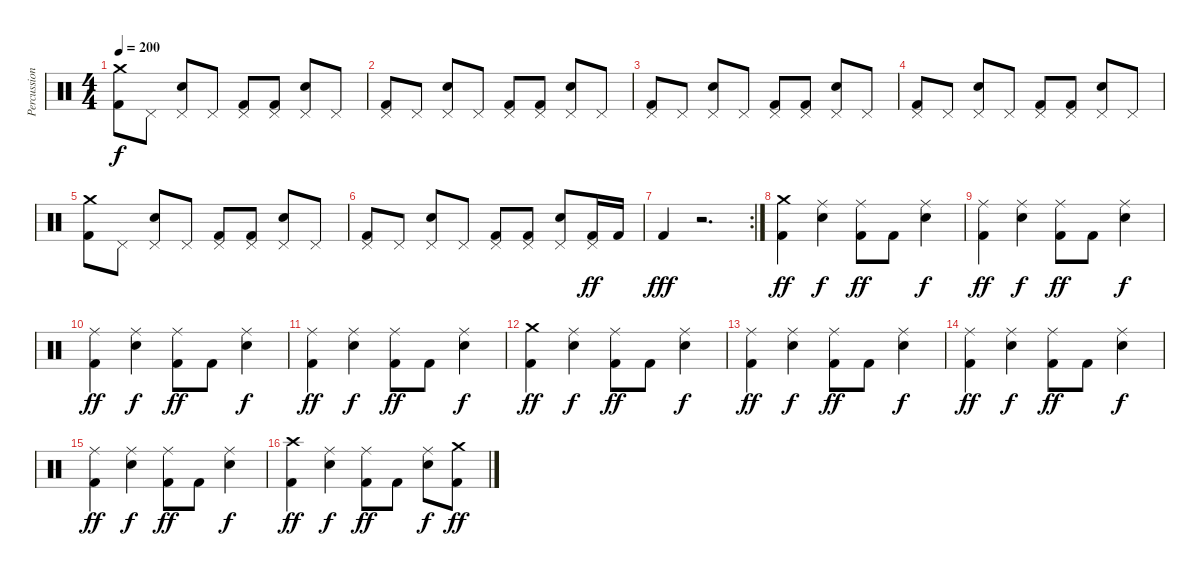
\track ("Percussion" "Percussion") {instrument percussion}
\staff {score}
\articulation defaults
\ts (4 4)
\tempo 200
\clef neutral
\ks c
("Crash medium (hit)" "Kick (hit) 2").8{dy f} "Pedal Hi-Hat (hit)".8 ("Pedal Hi-Hat (hit)" "Snare (hit) 2").8 "Pedal Hi-Hat (hit)".8 ("Pedal Hi-Hat (hit)" "Kick (hit) 2").8 ("Pedal Hi-Hat (hit)" "Kick (hit) 2").8 ("Pedal Hi-Hat (hit)" "Snare (hit) 2").8 "Pedal Hi-Hat (hit)".8 |
("Pedal Hi-Hat (hit)" "Kick (hit) 2").8 "Pedal Hi-Hat (hit)".8 ("Pedal Hi-Hat (hit)" "Snare (hit) 2").8 "Pedal Hi-Hat (hit)".8 ("Pedal Hi-Hat (hit)" "Kick (hit) 2").8 ("Pedal Hi-Hat (hit)" "Kick (hit) 2").8 ("Pedal Hi-Hat (hit)" "Snare (hit) 2").8 "Pedal Hi-Hat (hit)".8 |
("Pedal Hi-Hat (hit)" "Kick (hit) 2").8 "Pedal Hi-Hat (hit)".8 ("Pedal Hi-Hat (hit)" "Snare (hit) 2").8 "Pedal Hi-Hat (hit)".8 ("Pedal Hi-Hat (hit)" "Kick (hit) 2").8 ("Pedal Hi-Hat (hit)" "Kick (hit) 2").8 ("Pedal Hi-Hat (hit)" "Snare (hit) 2").8 "Pedal Hi-Hat (hit)".8 |
("Pedal Hi-Hat (hit)" "Kick (hit) 2").8 "Pedal Hi-Hat (hit)".8 ("Pedal Hi-Hat (hit)" "Snare (hit) 2").8 "Pedal Hi-Hat (hit)".8 ("Pedal Hi-Hat (hit)" "Kick (hit) 2").8 ("Pedal Hi-Hat (hit)" "Kick (hit) 2").8 ("Pedal Hi-Hat (hit)" "Snare (hit) 2").8 "Pedal Hi-Hat (hit)".8 |
("Crash medium (hit)" "Kick (hit) 2").8 "Pedal Hi-Hat (hit)".8 ("Pedal Hi-Hat (hit)" "Snare (hit) 2").8 "Pedal Hi-Hat (hit)".8 ("Pedal Hi-Hat (hit)" "Kick (hit) 2").8 ("Pedal Hi-Hat (hit)" "Kick (hit) 2").8 ("Pedal Hi-Hat (hit)" "Snare (hit) 2").8 "Pedal Hi-Hat (hit)".8 |
("Pedal Hi-Hat (hit)" "Kick (hit) 2").8 "Pedal Hi-Hat (hit)".8 ("Pedal Hi-Hat (hit)" "Snare (hit) 2").8 "Pedal Hi-Hat (hit)".8 ("Pedal Hi-Hat (hit)" "Kick (hit) 2").8 ("Pedal Hi-Hat (hit)" "Kick (hit) 2").8 ("Pedal Hi-Hat (hit)" "Snare (hit) 2").8 ("Pedal Hi-Hat (hit)" "Kick (hit) 2").16{dy ff} "Kick (hit) 2".16 |
\rc 2 "Kick (hit) 2".4{dy fff}
r.2{d} |
("Crash medium (hit)" "Kick (hit) 2").4{dy ff} ("Ride (middle)" "Snare (hit) 2").4{dy f} ("Ride (middle)" "Kick (hit) 2").8{dy ff} "Kick (hit) 2".8 ("Ride (middle)" "Snare (hit) 2").4{dy f} |
("Ride (middle)" "Kick (hit) 2").4{dy ff} ("Ride (middle)" "Snare (hit) 2").4{dy f} ("Ride (middle)" "Kick (hit) 2").8{dy ff} "Kick (hit) 2".8 ("Ride (middle)" "Snare (hit) 2").4{dy f} |
("Ride (middle)" "Kick (hit) 2").4{dy ff} ("Ride (middle)" "Snare (hit) 2").4{dy f} ("Ride (middle)" "Kick (hit) 2").8{dy ff} "Kick (hit) 2".8 ("Ride (middle)" "Snare (hit) 2").4{dy f} |
("Ride (middle)" "Kick (hit) 2").4{dy ff} ("Ride (middle)" "Snare (hit) 2").4{dy f} ("Ride (middle)" "Kick (hit) 2").8{dy ff} "Kick (hit) 2".8 ("Ride (middle)" "Snare (hit) 2").4{dy f} |
("Crash medium (hit)" "Kick (hit) 2").4{dy ff} ("Ride (middle)" "Snare (hit) 2").4{dy f} ("Ride (middle)" "Kick (hit) 2").8{dy ff} "Kick (hit) 2".8 ("Ride (middle)" "Snare (hit) 2").4{dy f} |
("Ride (middle)" "Kick (hit) 2").4{dy ff} ("Ride (middle)" "Snare (hit) 2").4{dy f} ("Ride (middle)" "Kick (hit) 2").8{dy ff} "Kick (hit) 2".8 ("Ride (middle)" "Snare (hit) 2").4{dy f} |
("Ride (middle)" "Kick (hit) 2").4{dy ff} ("Ride (middle)" "Snare (hit) 2").4{dy f} ("Ride (middle)" "Kick (hit) 2").8{dy ff} "Kick (hit) 2".8 ("Ride (middle)" "Snare (hit) 2").4{dy f} |
("Ride (middle)" "Kick (hit) 2").4{dy ff} ("Ride (middle)" "Snare (hit) 2").4{dy f} ("Ride (middle)" "Kick (hit) 2").8{dy ff} "Kick (hit) 2".8 ("Ride (middle)" "Snare (hit) 2").4{dy f} |
("Crash high (hit)" "Kick (hit) 2").4{dy ff} ("Ride (middle)" "Snare (hit) 2").4{dy f} ("Ride (middle)" "Kick (hit) 2").8{dy ff} "Kick (hit) 2".8 ("Ride (middle)" "Snare (hit) 2").8{dy f} ("Crash medium (hit)" "Kick (hit) 2").8{dy ff}
